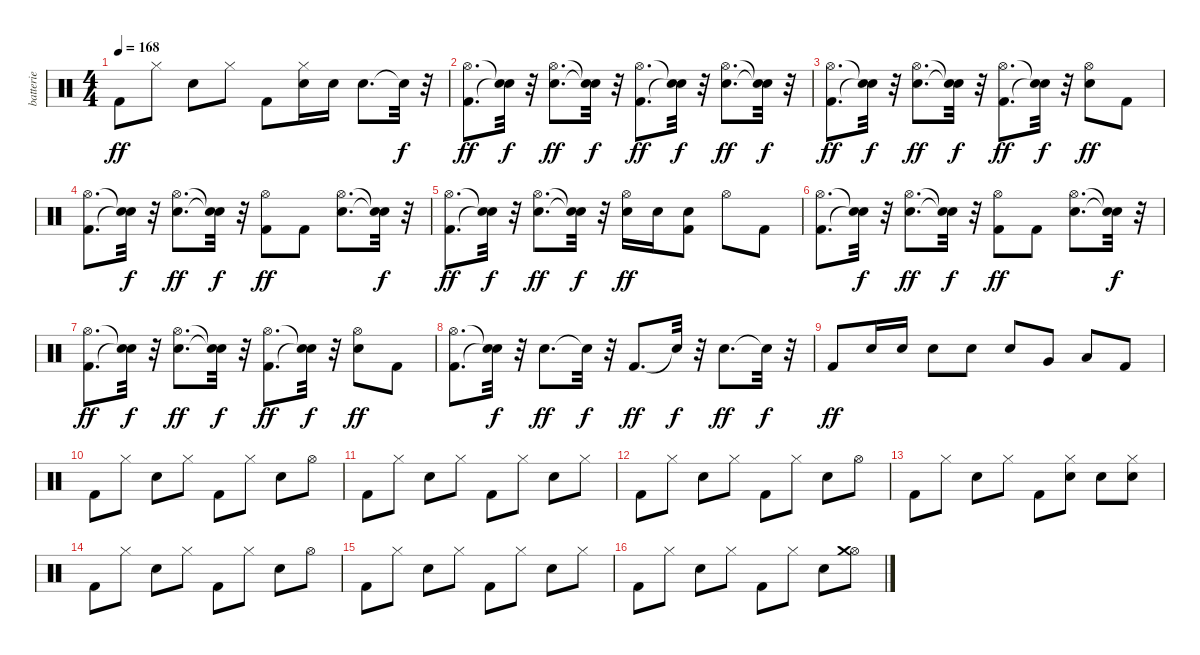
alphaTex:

\track ("batterie" "batterie") {instrument percussion}
\staff {score}
\articulation defaults
\ts (4 4)
\tempo 168
\clef neutral
\ks c "Kick (hit) 2".8{dy ff} "Hi-Hat (closed)".8 "Electric Snare (hit)".8 "Hi-Hat (closed)".8 "Kick (hit) 2".8
("Electric Snare (hit)" "Hi-Hat (closed)").16 "Electric Snare (hit)".16 "Electric Snare (hit)".8{d} "Snare (hit)"{t}.32{dy f} r.32 |
("Kick (hit) 2" "Hi-Hat (open)").8{d dy ff} ("Snare (hit)"{t} "Snare (hit)"{t}).32{dy f} r.32 ("Electric Snare (hit)" "Hi-Hat (open)").8{d dy ff} ("Snare (hit)"{t} "Snare (hit)"{t}).32{dy f} r.32 ("Kick (hit) 2" "Hi-Hat (open)").8{d dy ff} ("Snare (hit)"{t} "Snare (hit)"{t}).32{dy f} r.32 ("Electric Snare (hit)" "Hi-Hat (open)").8{d dy ff} ("Snare (hit)"{t} "Snare (hit)"{t}).32{dy f} r.32 |
("Kick (hit) 2" "Hi-Hat (open)").8{d dy ff} ("Snare (hit)"{t} "Snare (hit)"{t}).32{dy f} r.32 ("Electric Snare (hit)" "Hi-Hat (open)").8{d dy ff} ("Snare (hit)"{t} "Snare (hit)"{t}).32{dy f} r.32 ("Kick (hit) 2" "Hi-Hat (open)").8{d dy ff} ("Snare (hit)"{t} "Snare (hit)"{t}).32{dy f} r.32 ("Electric Snare (hit)" "Hi-Hat (open)").8{dy ff} "Kick (hit) 2".8 |
("Kick (hit) 2" "Hi-Hat (open)").8{d} ("Snare (hit)"{t} "Snare (hit)"{t}).32{dy f} r.32 ("Electric Snare (hit)" "Hi-Hat (open)").8{d dy ff} ("Snare (hit)"{t} "Snare (hit)"{t}).32{dy f} r.32 ("Kick (hit) 2" "Hi-Hat (open)").8{dy ff} "Kick (hit) 2".8 ("Electric Snare (hit)" "Hi-Hat (open)").8{d} ("Snare (hit)"{t} "Snare (hit)"{t}).32{dy f} r.32 |
("Kick (hit) 2" "Hi-Hat (open)").8{d dy ff} ("Snare (hit)"{t} "Snare (hit)"{t}).32{dy f} r.32 ("Electric Snare (hit)" "Hi-Hat (open)").8{d dy ff} ("Snare (hit)"{t} "Snare (hit)"{t}).32{dy f} r.32 ("Electric Snare (hit)" "Hi-Hat (open)").16{dy ff} "Electric Snare (hit)".16 ("Kick (hit) 2" "Electric Snare (hit)").8 "Hi-Hat (open)".8 "Kick (hit) 2".8 |
("Kick (hit) 2" "Hi-Hat (open)").8{d} ("Snare (hit)"{t} "Snare (hit)"{t}).32{dy f} r.32 ("Electric Snare (hit)" "Hi-Hat (open)").8{d dy ff} ("Snare (hit)"{t} "Snare (hit)"{t}).32{dy f} r.32 ("Kick (hit) 2" "Hi-Hat (open)").8{dy ff} "Kick (hit) 2".8 ("Electric Snare (hit)" "Hi-Hat (open)").8{d} ("Snare (hit)"{t} "Snare (hit)"{t}).32{dy f} r.32 |
("Kick (hit) 2" "Hi-Hat (open)").8{d dy ff} ("Snare (hit)"{t} "Snare (hit)"{t}).32{dy f} r.32 ("Electric Snare (hit)" "Hi-Hat (open)").8{d dy ff} ("Snare (hit)"{t} "Snare (hit)"{t}).32{dy f} r.32 ("Kick (hit) 2" "Hi-Hat (open)").8{d dy ff} ("Snare (hit)"{t} "Snare (hit)"{t}).32{dy f} r.32 ("Electric Snare (hit)" "Hi-Hat (open)").8{dy ff} "Kick (hit) 2".8 |
("Kick (hit) 2" "Hi-Hat (open)").8{d} ("Snare (hit)"{t} "Snare (hit)"{t}).32{dy f} r.32 "Electric Snare (hit)".8{d dy ff} "Snare (hit)"{t}.32{dy f} r.32 "Kick (hit) 2".8{d dy ff} "Snare (hit)"{t}.32{dy f} r.32 "Electric Snare (hit)".8{d dy ff} "Snare (hit)"{t}.32{dy f} r.32 |
"Kick (hit) 2".8{dy ff} "Electric Snare (hit)".16 "Electric Snare (hit)".16 "Electric Snare (hit)".8 "Electric Snare (hit)".8 "Electric Snare (hit)".8 "Very Low Tom (hit)".8 "Low Floor Tom (hit)".8 "Kick (hit) 2".8 |
"Kick (hit) 2".8 "Hi-Hat (closed)".8 "Electric Snare (hit)".8 "Hi-Hat (closed)".8 "Kick (hit) 2".8 "Hi-Hat (closed)".8 "Electric Snare (hit)".8 "Hi-Hat (open)".8 |
"Kick (hit) 2".8 "Hi-Hat (closed)".8 "Electric Snare (hit)".8 "Hi-Hat (closed)".8 "Kick (hit) 2".8 "Hi-Hat (closed)".8 "Electric Snare (hit)".8 "Hi-Hat (closed)".8 |
"Kick (hit) 2".8 "Hi-Hat (closed)".8 "Electric Snare (hit)".8 "Hi-Hat (closed)".8 "Kick (hit) 2".8 "Hi-Hat (closed)".8 "Electric Snare (hit)".8 "Hi-Hat (open)".8 |
"Kick (hit) 2".8 "Hi-Hat (closed)".8 "Electric Snare (hit)".8 "Hi-Hat (closed)".8 "Kick (hit) 2".8 ("Electric Snare (hit)" "Hi-Hat (closed)").8 "Electric Snare (hit)".8 ("Electric Snare (hit)" "Hi-Hat (closed)").8 |
"Kick (hit) 2".8 "Hi-Hat (closed)".8 "Electric Snare (hit)".8 "Hi-Hat (closed)".8 "Kick (hit) 2".8 "Hi-Hat (closed)".8 "Electric Snare (hit)".8 "Hi-Hat (open)".8 |
"Kick (hit) 2".8 "Hi-Hat (closed)".8 "Electric Snare (hit)".8 "Hi-Hat (closed)".8 "Kick (hit) 2".8 "Hi-Hat (closed)".8 "Electric Snare (hit)".8 "Hi-Hat (closed)".8 |
"Kick (hit) 2".8 "Hi-Hat (closed)".8 "Electric Snare (hit)".8 "Hi-Hat (closed)".8 "Kick (hit) 2".8 "Hi-Hat (closed)".8 "Electric Snare (hit)".8 ("Hi-Hat (open)" "Crash medium (hit)").8
